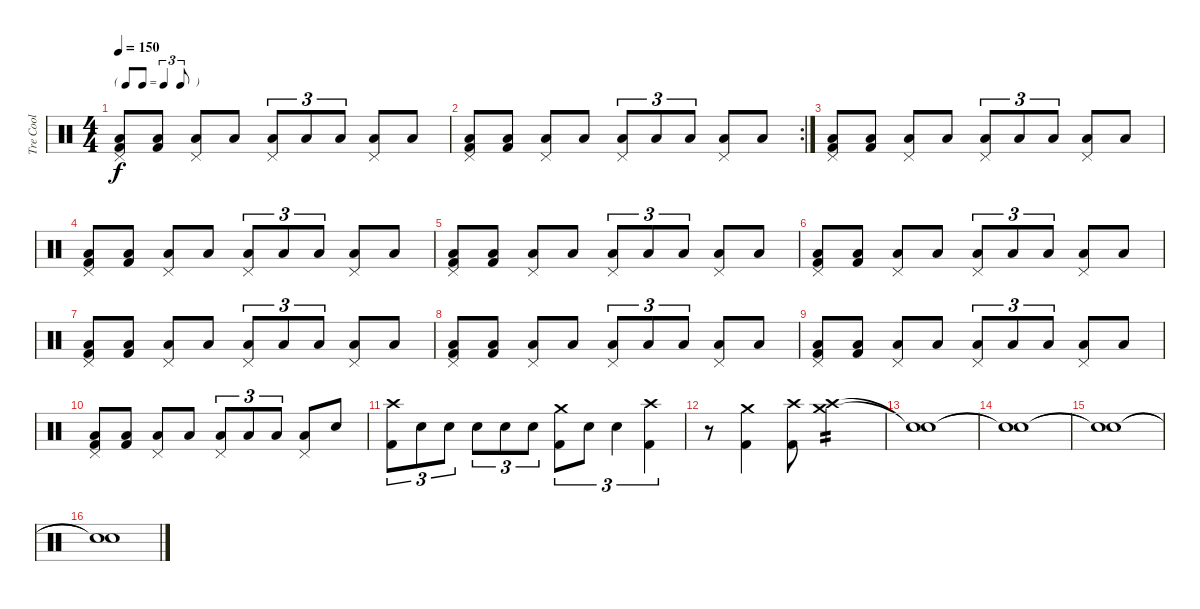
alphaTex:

\track ("Tre Cool" "Tre Cool") {instrument percussion}
\staff {score}
\articulation defaults
\ts (4 4)
\tf triplet8th
\tempo 150
\clef neutral
\ks c
("Pedal Hi-Hat (hit)" "Low Floor Tom (hit)" "Kick (hit) 2").8{dy f} ("Low Floor Tom (hit)" "Kick (hit) 2").8 ("Pedal Hi-Hat (hit)" "Low Tom (hit)").8 "Low Floor Tom (hit)".8 ("Pedal Hi-Hat (hit)" "Low Floor Tom (hit)").8{tu (3 2)} "Low Floor Tom (hit)".8{tu (3 2)} "Low Floor Tom (hit)".8{tu (3 2)} ("Pedal Hi-Hat (hit)" "Low Tom (hit)").8 "Low Floor Tom (hit)".8 |
\rc 2
("Pedal Hi-Hat (hit)" "Low Floor Tom (hit)" "Kick (hit) 2").8 ("Low Floor Tom (hit)" "Kick (hit) 2").8 ("Pedal Hi-Hat (hit)" "Low Tom (hit)").8 "Low Tom (hit)".8 ("Pedal Hi-Hat (hit)" "Low Floor Tom (hit)").8{tu (3 2)} "Low Floor Tom (hit)".8{tu (3 2)} "Low Floor Tom (hit)".8{tu (3 2)} ("Pedal Hi-Hat (hit)" "Low Tom (hit)").8 "Low Floor Tom (hit)".8 |
("Pedal Hi-Hat (hit)" "Low Floor Tom (hit)" "Kick (hit) 2").8 ("Low Floor Tom (hit)" "Kick (hit) 2").8 ("Pedal Hi-Hat (hit)" "Low Tom (hit)").8 "Low Floor Tom (hit)".8 ("Pedal Hi-Hat (hit)" "Low Floor Tom (hit)").8{tu (3 2)} "Low Floor Tom (hit)".8{tu (3 2)} "Low Floor Tom (hit)".8{tu (3 2)} ("Pedal Hi-Hat (hit)" "Low Tom (hit)").8 "Low Floor Tom (hit)".8 |
("Pedal Hi-Hat (hit)" "Low Floor Tom (hit)" "Kick (hit) 2").8 ("Low Floor Tom (hit)" "Kick (hit) 2").8 ("Pedal Hi-Hat (hit)" "Low Tom (hit)").8 "Low Tom (hit)".8 ("Pedal Hi-Hat (hit)" "Low Floor Tom (hit)").8{tu (3 2)} "Low Floor Tom (hit)".8{tu (3 2)} "Low Floor Tom (hit)".8{tu (3 2)} ("Pedal Hi-Hat (hit)" "Low Tom (hit)").8 "Low Floor Tom (hit)".8 |
("Pedal Hi-Hat (hit)" "Low Floor Tom (hit)" "Kick (hit) 2").8 ("Low Floor Tom (hit)" "Kick (hit) 2").8 ("Pedal Hi-Hat (hit)" "Low Tom (hit)").8 "Low Floor Tom (hit)".8 ("Pedal Hi-Hat (hit)" "Low Floor Tom (hit)").8{tu (3 2)} "Low Floor Tom (hit)".8{tu (3 2)} "Low Floor Tom (hit)".8{tu (3 2)} ("Pedal Hi-Hat (hit)" "Low Tom (hit)").8 "Low Floor Tom (hit)".8 |
("Pedal Hi-Hat (hit)" "Low Floor Tom (hit)" "Kick (hit) 2").8 ("Low Floor Tom (hit)" "Kick (hit) 2").8 ("Pedal Hi-Hat (hit)" "Low Tom (hit)").8 "Low Tom (hit)".8 ("Pedal Hi-Hat (hit)" "Low Floor Tom (hit)").8{tu (3 2)} "Low Floor Tom (hit)".8{tu (3 2)} "Low Floor Tom (hit)".8{tu (3 2)} ("Pedal Hi-Hat (hit)" "Low Tom (hit)").8 "Low Floor Tom (hit)".8 |
("Pedal Hi-Hat (hit)" "Low Floor Tom (hit)" "Kick (hit) 2").8 ("Low Floor Tom (hit)" "Kick (hit) 2").8 ("Pedal Hi-Hat (hit)" "Low Tom (hit)").8 "Low Floor Tom (hit)".8 ("Pedal Hi-Hat (hit)" "Low Floor Tom (hit)").8{tu (3 2)} "Low Floor Tom (hit)".8{tu (3 2)} "Low Floor Tom (hit)".8{tu (3 2)} ("Pedal Hi-Hat (hit)" "Low Tom (hit)").8 "Low Floor Tom (hit)".8 |
("Pedal Hi-Hat (hit)" "Low Floor Tom (hit)" "Kick (hit) 2").8 ("Low Floor Tom (hit)" "Kick (hit) 2").8 ("Pedal Hi-Hat (hit)" "Low Tom (hit)").8 "Low Tom (hit)".8 ("Pedal Hi-Hat (hit)" "Low Floor Tom (hit)").8{tu (3 2)} "Low Floor Tom (hit)".8{tu (3 2)} "Low Floor Tom (hit)".8{tu (3 2)} ("Pedal Hi-Hat (hit)" "Low Tom (hit)").8 "Low Floor Tom (hit)".8 |
("Pedal Hi-Hat (hit)" "Low Floor Tom (hit)" "Kick (hit) 2").8 ("Low Floor Tom (hit)" "Kick (hit) 2").8 ("Pedal Hi-Hat (hit)" "Low Tom (hit)").8 "Low Floor Tom (hit)".8 ("Pedal Hi-Hat (hit)" "Low Floor Tom (hit)").8{tu (3 2)} "Low Floor Tom (hit)".8{tu (3 2)} "Low Floor Tom (hit)".8{tu (3 2)} ("Pedal Hi-Hat (hit)" "Low Tom (hit)").8 "Low Floor Tom (hit)".8 |
("Pedal Hi-Hat (hit)" "Low Floor Tom (hit)" "Kick (hit) 2").8 ("Low Floor Tom (hit)" "Kick (hit) 2").8 ("Pedal Hi-Hat (hit)" "Low Tom (hit)").8 "Low Tom (hit)".8 ("Pedal Hi-Hat (hit)" "Low Floor Tom (hit)").8{tu (3 2)} "Low Floor Tom (hit)".8{tu (3 2)} "Low Floor Tom (hit)".8{tu (3 2)} ("Pedal Hi-Hat (hit)" "Low Tom (hit)").8 "Electric Snare (hit)".8 |
("Crash high (hit)" "Kick (hit) 2").8{tu (3 2)} "Electric Snare (hit)".8{tu (3 2)} "Electric Snare (hit)".8{tu (3 2)} "Electric Snare (hit)".8{tu (3 2)} "Electric Snare (hit)".8{tu (3 2)} "Electric Snare (hit)".8{tu (3 2)} ("Crash medium (hit)" "Kick (hit) 2").8{tu (3 2)} "Electric Snare (hit)".8{tu (3 2)} "Electric Snare (hit)".4{tu (3 2)} ("Crash high (hit)" "Kick (hit) 2").4{tu (3 2)} |
r.8 ("Crash medium (hit)" "Kick (hit) 2").4 ("Crash high (hit)" "Kick (hit) 2").8 ("Crash high (hit)" "Crash medium (hit)").2{tp 2} |
("Snare (hit)"{t} "Snare (hit)"{t}).1 |
("Snare (hit)"{t} "Snare (hit)"{t}).1 |
("Snare (hit)"{t} "Snare (hit)"{t}).1 |
("Snare (hit)"{t} "Snare (hit)"{t}).1
